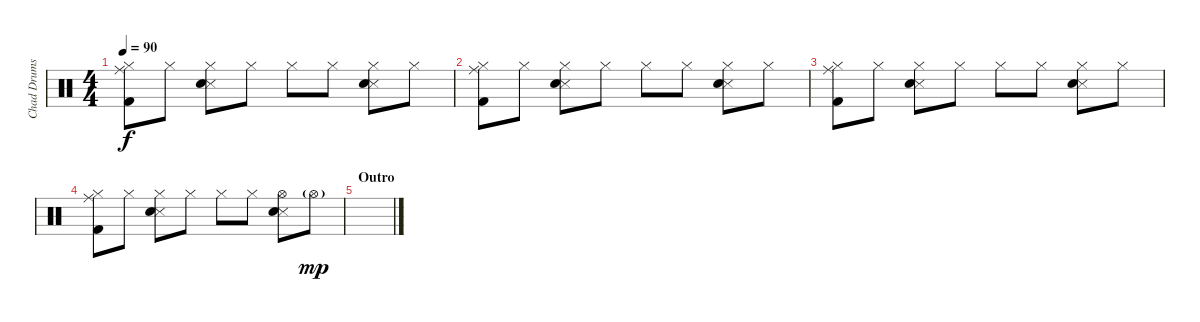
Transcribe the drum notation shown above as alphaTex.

\track ("Chad Drums" "Chad Drums") {instrument percussion}
\staff {score}
\articulation defaults
\ts (4 4)
\tempo 90
\clef neutral
\ks c
("Ride (middle)" "Hi-Hat (closed)" "Kick (hit) 2").8{dy f} "Hi-Hat (closed)".8 ("Hi-Hat (closed)" "Snare (side stick) 3" "Snare (hit) 2").8 "Hi-Hat (closed)".8 "Hi-Hat (closed)".8 "Hi-Hat (closed)".8 ("Hi-Hat (closed)" "Snare (side stick) 3" "Snare (hit) 2").8 "Hi-Hat (closed)".8 |
("Ride (middle)" "Hi-Hat (closed)" "Kick (hit) 2").8 "Hi-Hat (closed)".8 ("Hi-Hat (closed)" "Snare (side stick) 3" "Snare (hit) 2").8 "Hi-Hat (closed)".8 "Hi-Hat (closed)".8 "Hi-Hat (closed)".8 ("Hi-Hat (closed)" "Snare (side stick) 3" "Snare (hit) 2").8 "Hi-Hat (closed)".8 |
("Ride (middle)" "Hi-Hat (closed)" "Kick (hit) 2").8 "Hi-Hat (closed)".8 ("Hi-Hat (closed)" "Snare (side stick) 3" "Snare (hit) 2").8 "Hi-Hat (closed)".8 "Hi-Hat (closed)".8 "Hi-Hat (closed)".8 ("Hi-Hat (closed)" "Snare (side stick) 3" "Snare (hit) 2").8 "Hi-Hat (closed)".8 |
("Ride (middle)" "Hi-Hat (closed)" "Kick (hit) 2").8 "Hi-Hat (closed)".8 ("Hi-Hat (closed)" "Snare (side stick) 3" "Snare (hit) 2").8 "Hi-Hat (closed)".8 "Hi-Hat (closed)".8 "Hi-Hat (closed)".8 ("Hi-Hat (open)" "Snare (side stick) 3" "Snare (hit) 2").8 "Hi-Hat (open)"{g}.8{dy mp} |
\section ("" "Outro")
